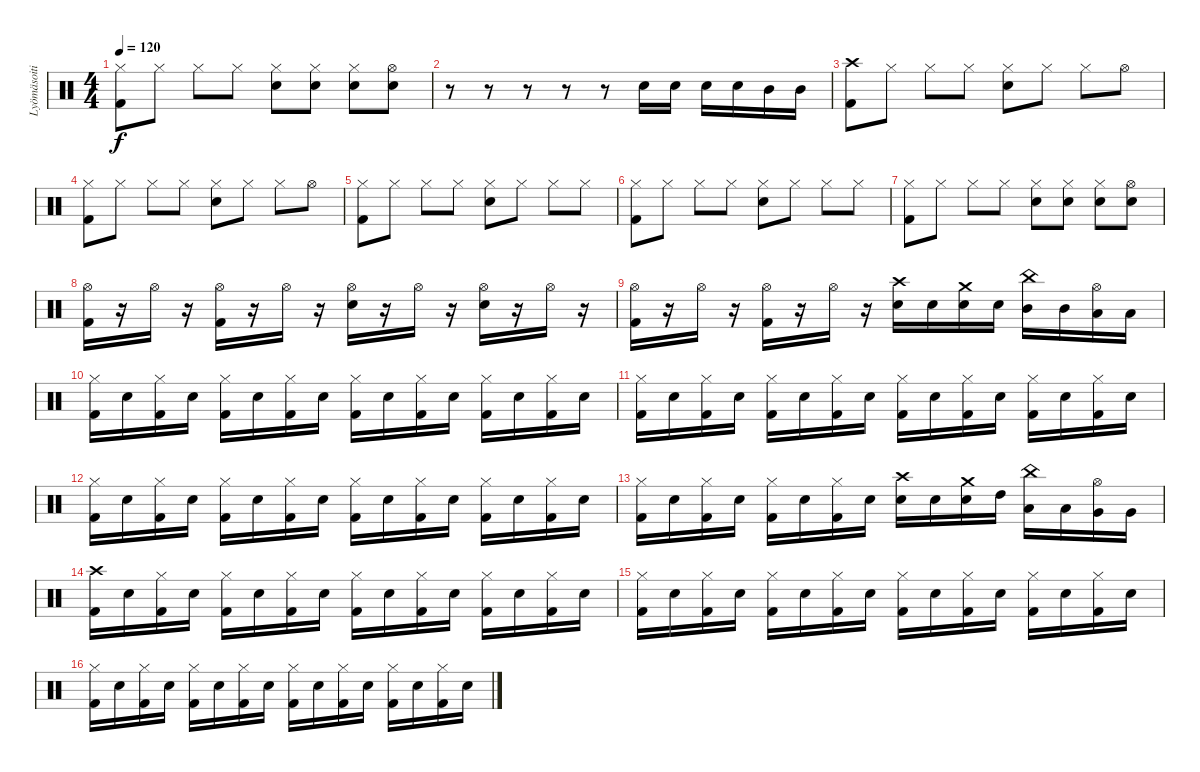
\track ("Lyömäsoitin" "Lyömäsoiti") {instrument percussion}
\staff {score}
\articulation defaults
\ts (4 4)
\tempo 120
\clef neutral
\ks c
("Hi-Hat (closed)" "Kick (hit) 2").8{dy f} "Hi-Hat (closed)".8 "Hi-Hat (closed)".8 "Hi-Hat (closed)".8 ("Hi-Hat (closed)" "Snare (hit) 2").8 ("Hi-Hat (closed)" "Snare (hit) 2").8 ("Hi-Hat (closed)" "Snare (hit) 2").8 ("Hi-Hat (open)" "Snare (hit) 2").8 |
r.8 r.8 r.8 r.8 r.8 "Snare (hit) 2".16 "Snare (hit) 2".16 "Snare (hit) 2".16 "Snare (hit) 2".16 "Mid Tom (hit)".16 "Mid Tom (hit)".16 |
("Crash high (hit)" "Kick (hit) 2").8 "Hi-Hat (closed)".8 "Hi-Hat (closed)".8 "Hi-Hat (closed)".8 ("Hi-Hat (closed)" "Snare (hit) 2").8 "Hi-Hat (closed)".8 "Hi-Hat (closed)".8 "Hi-Hat (open)".8 |
("Hi-Hat (closed)" "Kick (hit) 2").8 "Hi-Hat (closed)".8 "Hi-Hat (closed)".8 "Hi-Hat (closed)".8 ("Hi-Hat (closed)" "Snare (hit) 2").8 "Hi-Hat (closed)".8 "Hi-Hat (closed)".8 "Hi-Hat (open)".8 |
("Hi-Hat (closed)" "Kick (hit) 2").8 "Hi-Hat (closed)".8 "Hi-Hat (closed)".8 "Hi-Hat (closed)".8 ("Hi-Hat (closed)" "Snare (hit) 2").8 "Hi-Hat (closed)".8 "Hi-Hat (closed)".8 "Hi-Hat (closed)".8 |
("Hi-Hat (closed)" "Kick (hit) 2").8 "Hi-Hat (closed)".8 "Hi-Hat (closed)".8 "Hi-Hat (closed)".8 ("Hi-Hat (closed)" "Snare (hit) 2").8 "Hi-Hat (closed)".8 "Hi-Hat (closed)".8 "Hi-Hat (closed)".8 |
("Hi-Hat (closed)" "Kick (hit) 2").8 "Hi-Hat (closed)".8 "Hi-Hat (closed)".8 "Hi-Hat (closed)".8 ("Hi-Hat (closed)" "Snare (hit) 2").8 ("Hi-Hat (closed)" "Snare (hit) 2").8 ("Hi-Hat (closed)" "Snare (hit) 2").8 ("Hi-Hat (open)" "Snare (hit) 2").8 |
("Hi-Hat (open)" "Kick (hit) 2").16 r.16 "Hi-Hat (open)".16 r.16 ("Hi-Hat (open)" "Kick (hit) 2").16 r.16 "Hi-Hat (open)".16 r.16 ("Hi-Hat (open)" "Snare (hit) 2").16 r.16 "Hi-Hat (open)".16 r.16 ("Hi-Hat (open)" "Snare (hit) 2").16 r.16 "Hi-Hat (open)".16 r.16 |
("Hi-Hat (open)" "Kick (hit) 2").16 r.16 "Hi-Hat (open)".16 r.16 ("Hi-Hat (open)" "Kick (hit) 2").16 r.16 "Hi-Hat (open)".16 r.16 ("Crash high (hit)" "Snare (hit) 2").16 "Snare (hit) 2".16 ("Crash medium (hit)" "Snare (hit) 2").16 "Snare (hit) 2".16 ("China (hit)" "Mid Tom (hit)").16 "Mid Tom (hit)".16 ("Hi-Hat (open)" "Low Tom (hit)").16 "Low Tom (hit)".16 |
("Hi-Hat (closed)" "Kick (hit) 2").16 "Snare (hit) 2".16 ("Hi-Hat (closed)" "Kick (hit) 2").16 "Snare (hit) 2".16 ("Hi-Hat (closed)" "Kick (hit) 2").16 "Snare (hit) 2".16 ("Hi-Hat (closed)" "Kick (hit) 2").16 "Snare (hit) 2".16 ("Hi-Hat (closed)" "Kick (hit) 2").16 "Snare (hit) 2".16 ("Hi-Hat (closed)" "Kick (hit) 2").16 "Snare (hit) 2".16 ("Hi-Hat (closed)" "Kick (hit) 2").16 "Snare (hit) 2".16 ("Hi-Hat (closed)" "Kick (hit) 2").16 "Snare (hit) 2".16 |
("Hi-Hat (closed)" "Kick (hit) 2").16 "Snare (hit) 2".16 ("Hi-Hat (closed)" "Kick (hit) 2").16 "Snare (hit) 2".16 ("Hi-Hat (closed)" "Kick (hit) 2").16 "Snare (hit) 2".16 ("Hi-Hat (closed)" "Kick (hit) 2").16 "Snare (hit) 2".16 ("Hi-Hat (closed)" "Kick (hit) 2").16 "Snare (hit) 2".16 ("Hi-Hat (closed)" "Kick (hit) 2").16 "Snare (hit) 2".16 ("Hi-Hat (closed)" "Kick (hit) 2").16 "Snare (hit) 2".16 ("Hi-Hat (closed)" "Kick (hit) 2").16 "Snare (hit) 2".16 |
("Hi-Hat (closed)" "Kick (hit) 2").16 "Snare (hit) 2".16 ("Hi-Hat (closed)" "Kick (hit) 2").16 "Snare (hit) 2".16 ("Hi-Hat (closed)" "Kick (hit) 2").16 "Snare (hit) 2".16 ("Hi-Hat (closed)" "Kick (hit) 2").16 "Snare (hit) 2".16 ("Hi-Hat (closed)" "Kick (hit) 2").16 "Snare (hit) 2".16 ("Hi-Hat (closed)" "Kick (hit) 2").16 "Snare (hit) 2".16 ("Hi-Hat (closed)" "Kick (hit) 2").16 "Snare (hit) 2".16 ("Hi-Hat (closed)" "Kick (hit) 2").16 "Snare (hit) 2".16 |
("Hi-Hat (closed)" "Kick (hit) 2").16 "Snare (hit) 2".16 ("Hi-Hat (closed)" "Kick (hit) 2").16 "Snare (hit) 2".16 ("Hi-Hat (closed)" "Kick (hit) 2").16 "Snare (hit) 2".16 ("Hi-Hat (closed)" "Kick (hit) 2").16 "Snare (hit) 2".16 ("Crash high (hit)" "Snare (hit) 2").16 "Snare (hit) 2".16 ("Crash medium (hit)" "Snare (hit) 2").16 "High Tom (hit)".16 ("China (hit)" "Low Tom (hit)").16 "Low Tom (hit)".16 ("Hi-Hat (open)" "Very Low Tom (hit)").16 "Very Low Tom (hit)".16 |
("Crash high (hit)" "Kick (hit) 2").16 "Snare (hit) 2".16 ("Hi-Hat (closed)" "Kick (hit) 2").16 "Snare (hit) 2".16 ("Hi-Hat (closed)" "Kick (hit) 2").16 "Snare (hit) 2".16 ("Hi-Hat (closed)" "Kick (hit) 2").16 "Snare (hit) 2".16 ("Hi-Hat (closed)" "Kick (hit) 2").16 "Snare (hit) 2".16 ("Hi-Hat (closed)" "Kick (hit) 2").16 "Snare (hit) 2".16 ("Hi-Hat (closed)" "Kick (hit) 2").16 "Snare (hit) 2".16 ("Hi-Hat (closed)" "Kick (hit) 2").16 "Snare (hit) 2".16 |
("Hi-Hat (closed)" "Kick (hit) 2").16 "Snare (hit) 2".16 ("Hi-Hat (closed)" "Kick (hit) 2").16 "Snare (hit) 2".16 ("Hi-Hat (closed)" "Kick (hit) 2").16 "Snare (hit) 2".16 ("Hi-Hat (closed)" "Kick (hit) 2").16 "Snare (hit) 2".16 ("Hi-Hat (closed)" "Kick (hit) 2").16 "Snare (hit) 2".16 ("Hi-Hat (closed)" "Kick (hit) 2").16 "Snare (hit) 2".16 ("Hi-Hat (closed)" "Kick (hit) 2").16 "Snare (hit) 2".16 ("Hi-Hat (closed)" "Kick (hit) 2").16 "Snare (hit) 2".16 |
("Hi-Hat (closed)" "Kick (hit) 2").16 "Snare (hit) 2".16 ("Hi-Hat (closed)" "Kick (hit) 2").16 "Snare (hit) 2".16 ("Hi-Hat (closed)" "Kick (hit) 2").16 "Snare (hit) 2".16 ("Hi-Hat (closed)" "Kick (hit) 2").16 "Snare (hit) 2".16 ("Hi-Hat (closed)" "Kick (hit) 2").16 "Snare (hit) 2".16 ("Hi-Hat (closed)" "Kick (hit) 2").16 "Snare (hit) 2".16 ("Hi-Hat (closed)" "Kick (hit) 2").16 "Snare (hit) 2".16 ("Hi-Hat (closed)" "Kick (hit) 2").16 "Snare (hit) 2".16
